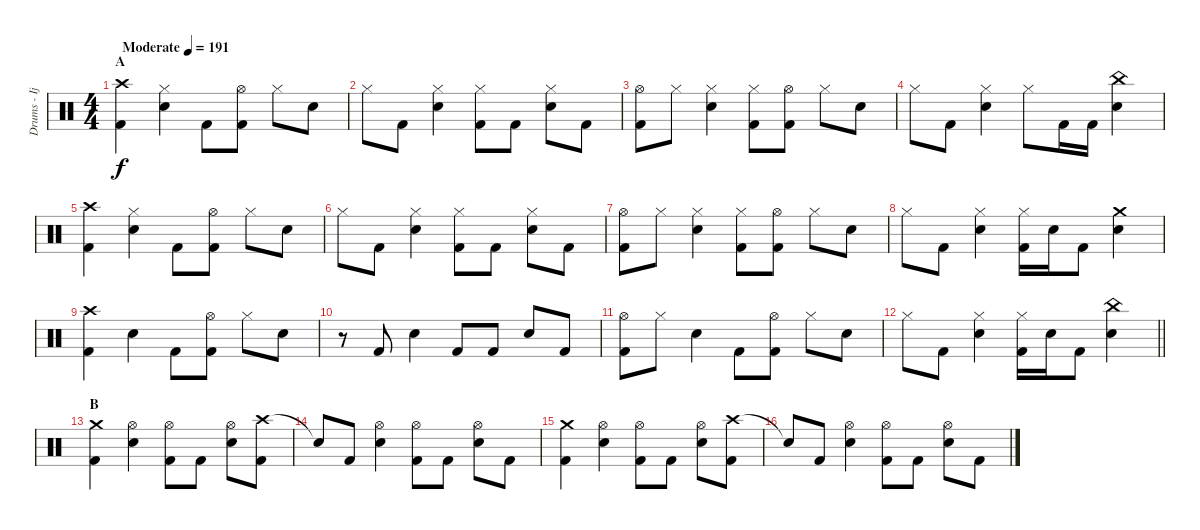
\track ("Drums - Ijichi" "Drums - Ij") {instrument percussion}
\staff
\articulation defaults
\ts (4 4)
\section ("" "A")
\tempo (191 "Moderate")
\clef neutral
\ks c
("Crash high (hit)" "Kick (hit) 2").4{dy f} ("Hi-Hat (closed)" "Electric Snare (hit)").4 "Kick (hit) 2".8 ("Hi-Hat (open)" "Kick (hit) 2").8 "Hi-Hat (closed)".8 "Electric Snare (hit)".8 |
"Hi-Hat (closed)".8 "Kick (hit) 2".8 ("Hi-Hat (closed)" "Electric Snare (hit)").4 ("Hi-Hat (closed)" "Kick (hit) 2").8 "Kick (hit) 2".8 ("Hi-Hat (closed)" "Electric Snare (hit)").8 "Kick (hit) 2".8 |
("Hi-Hat (open)" "Kick (hit) 2").8 "Hi-Hat (closed)".8 ("Hi-Hat (closed)" "Electric Snare (hit)").4 ("Hi-Hat (closed)" "Kick (hit) 2").8 ("Hi-Hat (open)" "Kick (hit) 2").8 "Hi-Hat (closed)".8 "Electric Snare (hit)".8 |
"Hi-Hat (closed)".8 "Kick (hit) 2".8 ("Hi-Hat (closed)" "Electric Snare (hit)").4 "Hi-Hat (closed)".8 "Kick (hit) 2".16 "Kick (hit) 2".16 ("China (hit)" "Electric Snare (hit)").4 |
("Crash high (hit)" "Kick (hit) 2").4 ("Hi-Hat (closed)" "Electric Snare (hit)").4 "Kick (hit) 2".8 ("Hi-Hat (open)" "Kick (hit) 2").8 "Hi-Hat (closed)".8 "Electric Snare (hit)".8 |
"Hi-Hat (closed)".8 "Kick (hit) 2".8 ("Hi-Hat (closed)" "Electric Snare (hit)").4 ("Hi-Hat (closed)" "Kick (hit) 2").8 "Kick (hit) 2".8 ("Hi-Hat (closed)" "Electric Snare (hit)").8 "Kick (hit) 2".8 |
("Hi-Hat (open)" "Kick (hit) 2").8 "Hi-Hat (closed)".8 ("Hi-Hat (closed)" "Electric Snare (hit)").4 ("Hi-Hat (closed)" "Kick (hit) 2").8 ("Hi-Hat (open)" "Kick (hit) 2").8 "Hi-Hat (closed)".8 "Electric Snare (hit)".8 |
"Hi-Hat (closed)".8 "Kick (hit) 2".8 ("Hi-Hat (closed)" "Electric Snare (hit)").4 ("Hi-Hat (closed)" "Kick (hit) 2").16 "Electric Snare (hit)".16 "Kick (hit) 2".8 ("Crash medium (hit)" "Electric Snare (hit)").4 |
("Crash high (hit)" "Kick (hit) 2").4 "Electric Snare (hit)".4 "Kick (hit) 2".8 ("Hi-Hat (open)" "Kick (hit) 2").8 "Hi-Hat (closed)".8 "Electric Snare (hit)".8 |
r.8 "Kick (hit) 2".8 "Electric Snare (hit)".4 "Kick (hit) 2".8 "Kick (hit) 2".8 "Electric Snare (hit)".8 "Kick (hit) 2".8 |
("Hi-Hat (open)" "Kick (hit) 2").8 "Hi-Hat (closed)".8 "Electric Snare (hit)".4 "Kick (hit) 2".8 ("Hi-Hat (open)" "Kick (hit) 2").8 "Hi-Hat (closed)".8 "Electric Snare (hit)".8 |
\barLineRight lightlight "Hi-Hat (closed)".8 "Kick (hit) 2".8
("Hi-Hat (closed)" "Electric Snare (hit)").4 ("Hi-Hat (closed)" "Kick (hit) 2").16 "Electric Snare (hit)".16 "Kick (hit) 2".8 ("China (hit)" "Electric Snare (hit)").4 |
\section ("" "B")
("Crash medium (hit)" "Kick (hit) 2").4 ("Hi-Hat (open)" "Electric Snare (hit)").4 ("Hi-Hat (open)" "Kick (hit) 2").8 "Kick (hit) 2".8 ("Hi-Hat (open)" "Electric Snare (hit)").8 ("Crash high (hit)" "Kick (hit) 2").8 |
"Snare (hit)"{t}.8 "Kick (hit) 2".8 ("Hi-Hat (open)" "Electric Snare (hit)").4 ("Hi-Hat (open)" "Kick (hit) 2").8 "Kick (hit) 2".8 ("Hi-Hat (open)" "Electric Snare (hit)").8 "Kick (hit) 2".8 |
("Crash medium (hit)" "Kick (hit) 2").4 ("Hi-Hat (open)" "Electric Snare (hit)").4 ("Hi-Hat (open)" "Kick (hit) 2").8 "Kick (hit) 2".8 ("Hi-Hat (open)" "Electric Snare (hit)").8 ("Crash high (hit)" "Kick (hit) 2").8 |
"Snare (hit)"{t}.8 "Kick (hit) 2".8 ("Hi-Hat (open)" "Electric Snare (hit)").4 ("Hi-Hat (open)" "Kick (hit) 2").8 "Kick (hit) 2".8 ("Hi-Hat (open)" "Electric Snare (hit)").8 "Kick (hit) 2".8
